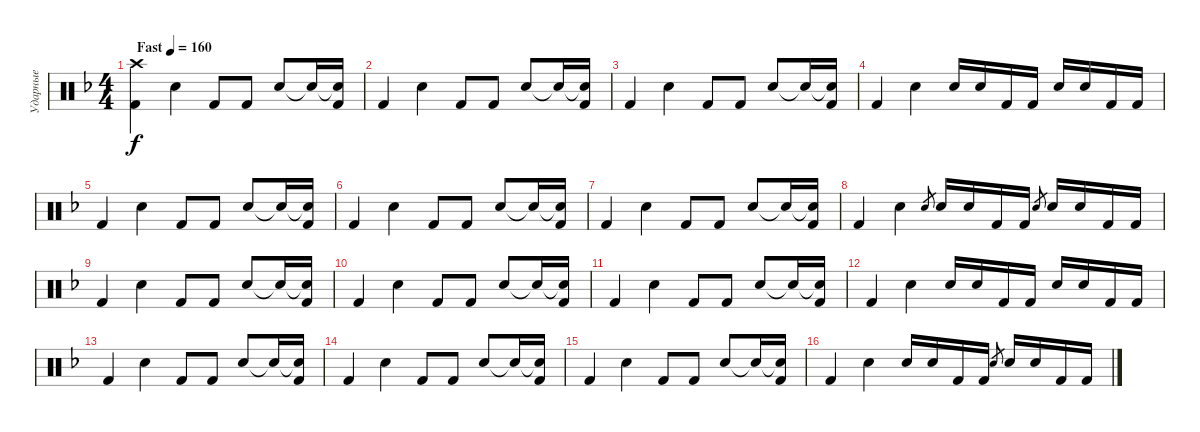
\track ("Ударные" "Ударные") {instrument percussion}
\staff {score}
\articulation defaults
\ts (4 4)
\tempo (160 "Fast")
\clef neutral
\ks dminor
("Crash high (hit)" "Kick (hit) 2").4{dy f} "Electric Snare (hit)".4 "Kick (hit) 2".8 "Kick (hit) 2".8 "Electric Snare (hit)".8 "Snare (hit)"{t}.16 ("Snare (hit)"{t} "Kick (hit) 2").16 |
"Kick (hit) 2".4 "Electric Snare (hit)".4 "Kick (hit) 2".8 "Kick (hit) 2".8 "Electric Snare (hit)".8 "Snare (hit)"{t}.16 ("Snare (hit)"{t} "Kick (hit) 2").16 |
"Kick (hit) 2".4 "Electric Snare (hit)".4 "Kick (hit) 2".8 "Kick (hit) 2".8 "Electric Snare (hit)".8 "Snare (hit)"{t}.16 ("Snare (hit)"{t} "Kick (hit) 2").16 |
"Kick (hit) 2".4 "Electric Snare (hit)".4 "Electric Snare (hit)".16 "Electric Snare (hit)".16 "Kick (hit) 2".16 "Kick (hit) 2".16 "Electric Snare (hit)".16 "Electric Snare (hit)".16 "Kick (hit) 2".16 "Kick (hit) 2".16 |
"Kick (hit) 2".4 "Electric Snare (hit)".4 "Kick (hit) 2".8 "Kick (hit) 2".8 "Electric Snare (hit)".8 "Snare (hit)"{t}.16 ("Snare (hit)"{t} "Kick (hit) 2").16 |
"Kick (hit) 2".4 "Electric Snare (hit)".4 "Kick (hit) 2".8 "Kick (hit) 2".8 "Electric Snare (hit)".8 "Snare (hit)"{t}.16 ("Snare (hit)"{t} "Kick (hit) 2").16 |
"Kick (hit) 2".4 "Electric Snare (hit)".4 "Kick (hit) 2".8 "Kick (hit) 2".8 "Electric Snare (hit)".8 "Snare (hit)"{t}.16 ("Snare (hit)"{t} "Kick (hit) 2").16 |
"Kick (hit) 2".4 "Electric Snare (hit)".4 "Snare (hit) 2".8{gr} "Electric Snare (hit)".16 "Electric Snare (hit)".16 "Kick (hit) 2".16 "Kick (hit) 2".16 "Snare (hit) 2".8{gr} "Electric Snare (hit)".16 "Electric Snare (hit)".16 "Kick (hit) 2".16 "Kick (hit) 2".16 |
"Kick (hit) 2".4 "Electric Snare (hit)".4 "Kick (hit) 2".8 "Kick (hit) 2".8 "Electric Snare (hit)".8 "Snare (hit)"{t}.16 ("Snare (hit)"{t} "Kick (hit) 2").16 |
"Kick (hit) 2".4 "Electric Snare (hit)".4 "Kick (hit) 2".8 "Kick (hit) 2".8 "Electric Snare (hit)".8 "Snare (hit)"{t}.16 ("Snare (hit)"{t} "Kick (hit) 2").16 |
"Kick (hit) 2".4 "Electric Snare (hit)".4 "Kick (hit) 2".8 "Kick (hit) 2".8 "Electric Snare (hit)".8 "Snare (hit)"{t}.16 ("Snare (hit)"{t} "Kick (hit) 2").16 |
"Kick (hit) 2".4 "Electric Snare (hit)".4 "Electric Snare (hit)".16 "Electric Snare (hit)".16 "Kick (hit) 2".16 "Kick (hit) 2".16 "Electric Snare (hit)".16 "Electric Snare (hit)".16 "Kick (hit) 2".16 "Kick (hit) 2".16 |
"Kick (hit) 2".4 "Electric Snare (hit)".4 "Kick (hit) 2".8 "Kick (hit) 2".8 "Electric Snare (hit)".8 "Snare (hit)"{t}.16 ("Snare (hit)"{t} "Kick (hit) 2").16 |
"Kick (hit) 2".4 "Electric Snare (hit)".4 "Kick (hit) 2".8 "Kick (hit) 2".8 "Electric Snare (hit)".8 "Snare (hit)"{t}.16 ("Snare (hit)"{t} "Kick (hit) 2").16 |
"Kick (hit) 2".4 "Electric Snare (hit)".4 "Kick (hit) 2".8 "Kick (hit) 2".8 "Electric Snare (hit)".8 "Snare (hit)"{t}.16 ("Snare (hit)"{t} "Kick (hit) 2").16 |
"Kick (hit) 2".4 "Electric Snare (hit)".4 "Electric Snare (hit)".16 "Electric Snare (hit)".16 "Kick (hit) 2".16 "Kick (hit) 2".16 "Snare (hit) 2".8{gr} "Electric Snare (hit)".16 "Electric Snare (hit)".16 "Kick (hit) 2".16 "Kick (hit) 2".16
